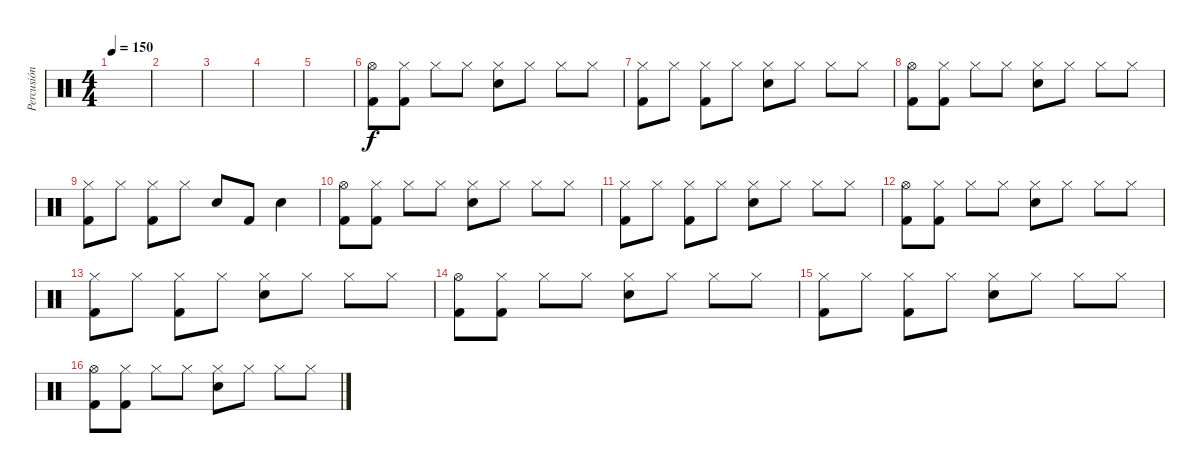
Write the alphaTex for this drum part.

\track ("Percusión" "Percusión") {instrument percussion}
\staff {score}
\articulation defaults
\ts (4 4)
\tempo 150
\clef neutral
\ks c
|
|
|
|
|
("Hi-Hat (open)" "Kick (hit) 2").8 ("Hi-Hat (closed)" "Kick (hit) 2").8 "Hi-Hat (closed)".8 "Hi-Hat (closed)".8 ("Hi-Hat (closed)" "Electric Snare (hit)").8 "Hi-Hat (closed)".8 "Hi-Hat (closed)".8 "Hi-Hat (closed)".8 |
("Hi-Hat (closed)" "Kick (hit) 2").8 "Hi-Hat (closed)".8 ("Hi-Hat (closed)" "Kick (hit) 2").8 "Hi-Hat (closed)".8 ("Hi-Hat (closed)" "Electric Snare (hit)").8 "Hi-Hat (closed)".8 "Hi-Hat (closed)".8 "Hi-Hat (closed)".8 |
("Hi-Hat (open)" "Kick (hit) 2").8 ("Hi-Hat (closed)" "Kick (hit) 2").8 "Hi-Hat (closed)".8 "Hi-Hat (closed)".8 ("Hi-Hat (closed)" "Electric Snare (hit)").8 "Hi-Hat (closed)".8 "Hi-Hat (closed)".8 "Hi-Hat (closed)".8 |
("Hi-Hat (closed)" "Kick (hit) 2").8 "Hi-Hat (closed)".8 ("Hi-Hat (closed)" "Kick (hit) 2").8 "Hi-Hat (closed)".8 "Electric Snare (hit)".8 "Kick (hit) 2".8 "Electric Snare (hit)".4 |
("Hi-Hat (open)" "Kick (hit) 2").8 ("Hi-Hat (closed)" "Kick (hit) 2").8 "Hi-Hat (closed)".8 "Hi-Hat (closed)".8 ("Hi-Hat (closed)" "Electric Snare (hit)").8 "Hi-Hat (closed)".8 "Hi-Hat (closed)".8 "Hi-Hat (closed)".8 |
("Hi-Hat (closed)" "Kick (hit) 2").8 "Hi-Hat (closed)".8 ("Hi-Hat (closed)" "Kick (hit) 2").8 "Hi-Hat (closed)".8 ("Hi-Hat (closed)" "Electric Snare (hit)").8 "Hi-Hat (closed)".8 "Hi-Hat (closed)".8 "Hi-Hat (closed)".8 |
("Hi-Hat (open)" "Kick (hit) 2").8 ("Hi-Hat (closed)" "Kick (hit) 2").8 "Hi-Hat (closed)".8 "Hi-Hat (closed)".8 ("Hi-Hat (closed)" "Electric Snare (hit)").8 "Hi-Hat (closed)".8 "Hi-Hat (closed)".8 "Hi-Hat (closed)".8 |
("Hi-Hat (closed)" "Kick (hit) 2").8 "Hi-Hat (closed)".8 ("Hi-Hat (closed)" "Kick (hit) 2").8 "Hi-Hat (closed)".8 ("Hi-Hat (closed)" "Electric Snare (hit)").8 "Hi-Hat (closed)".8 "Hi-Hat (closed)".8 "Hi-Hat (closed)".8 |
("Hi-Hat (open)" "Kick (hit) 2").8 ("Hi-Hat (closed)" "Kick (hit) 2").8 "Hi-Hat (closed)".8 "Hi-Hat (closed)".8 ("Hi-Hat (closed)" "Electric Snare (hit)").8 "Hi-Hat (closed)".8 "Hi-Hat (closed)".8 "Hi-Hat (closed)".8 |
("Hi-Hat (closed)" "Kick (hit) 2").8 "Hi-Hat (closed)".8 ("Hi-Hat (closed)" "Kick (hit) 2").8 "Hi-Hat (closed)".8 ("Hi-Hat (closed)" "Electric Snare (hit)").8 "Hi-Hat (closed)".8 "Hi-Hat (closed)".8 "Hi-Hat (closed)".8 |
("Hi-Hat (open)" "Kick (hit) 2").8 ("Hi-Hat (closed)" "Kick (hit) 2").8 "Hi-Hat (closed)".8 "Hi-Hat (closed)".8 ("Hi-Hat (closed)" "Electric Snare (hit)").8 "Hi-Hat (closed)".8 "Hi-Hat (closed)".8 "Hi-Hat (closed)".8
